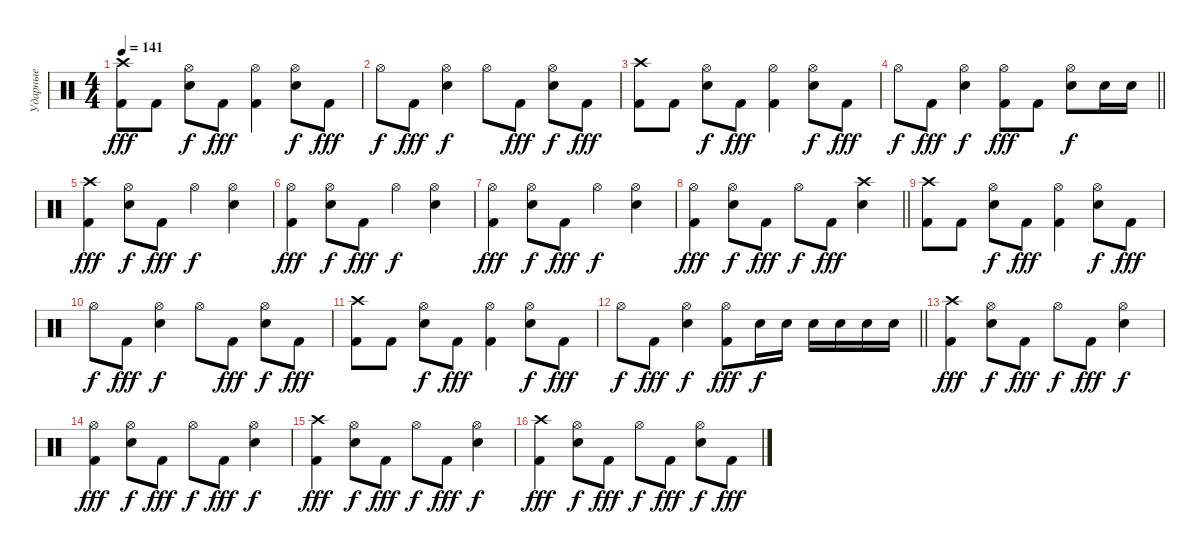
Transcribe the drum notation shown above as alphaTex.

\track ("Ударные" "Ударные") {instrument percussion}
\staff {score}
\articulation defaults
\ts (4 4)
\tempo 141
\clef neutral
\ks c
("Kick (hit) 2" "Crash high (hit)").8{dy fff} "Kick (hit) 2".8 ("Snare (hit) 2" "Hi-Hat (open)").8{dy f} "Kick (hit) 2".8{dy fff} ("Kick (hit) 2" "Hi-Hat (open)").4 ("Snare (hit) 2" "Hi-Hat (open)").8{dy f} "Kick (hit) 2".8{dy fff} |
"Hi-Hat (open)".8{dy f} "Kick (hit) 2".8{dy fff} ("Snare (hit) 2" "Hi-Hat (open)").4{dy f} "Hi-Hat (open)".8 "Kick (hit) 2".8{dy fff} ("Snare (hit) 2" "Hi-Hat (open)").8{dy f} "Kick (hit) 2".8{dy fff} |
("Kick (hit) 2" "Crash high (hit)").8 "Kick (hit) 2".8 ("Snare (hit) 2" "Hi-Hat (open)").8{dy f} "Kick (hit) 2".8{dy fff} ("Kick (hit) 2" "Hi-Hat (open)").4 ("Snare (hit) 2" "Hi-Hat (open)").8{dy f} "Kick (hit) 2".8{dy fff} |
\barLineRight lightlight "Hi-Hat (open)".8{dy f} "Kick (hit) 2".8{dy fff}
("Snare (hit) 2" "Hi-Hat (open)").4{dy f} ("Kick (hit) 2" "Hi-Hat (open)").8{dy fff} "Kick (hit) 2".8 ("Snare (hit) 2" "Hi-Hat (open)").8{dy f} "Snare (hit) 2".16 "Snare (hit) 2".16 |
("Kick (hit) 2" "Crash high (hit)").4{dy fff} ("Snare (hit) 2" "Hi-Hat (open)").8{dy f} "Kick (hit) 2".8{dy fff} "Hi-Hat (open)".4{dy f} ("Snare (hit) 2" "Hi-Hat (open)").4 |
("Kick (hit) 2" "Hi-Hat (open)").4{dy fff} ("Snare (hit) 2" "Hi-Hat (open)").8{dy f} "Kick (hit) 2".8{dy fff} "Hi-Hat (open)".4{dy f} ("Snare (hit) 2" "Hi-Hat (open)").4 |
("Kick (hit) 2" "Hi-Hat (open)").4{dy fff} ("Snare (hit) 2" "Hi-Hat (open)").8{dy f} "Kick (hit) 2".8{dy fff} "Hi-Hat (open)".4{dy f} ("Snare (hit) 2" "Hi-Hat (open)").4 |
\barLineRight lightlight
("Kick (hit) 2" "Hi-Hat (open)").4{dy fff} ("Snare (hit) 2" "Hi-Hat (open)").8{dy f} "Kick (hit) 2".8{dy fff} "Hi-Hat (open)".8{dy f} "Kick (hit) 2".8{dy fff} ("Snare (hit) 2" "Crash high (hit)").4 |
("Kick (hit) 2" "Crash high (hit)").8 "Kick (hit) 2".8 ("Snare (hit) 2" "Hi-Hat (open)").8{dy f} "Kick (hit) 2".8{dy fff} ("Kick (hit) 2" "Hi-Hat (open)").4 ("Snare (hit) 2" "Hi-Hat (open)").8{dy f} "Kick (hit) 2".8{dy fff} |
"Hi-Hat (open)".8{dy f} "Kick (hit) 2".8{dy fff} ("Snare (hit) 2" "Hi-Hat (open)").4{dy f} "Hi-Hat (open)".8 "Kick (hit) 2".8{dy fff} ("Snare (hit) 2" "Hi-Hat (open)").8{dy f} "Kick (hit) 2".8{dy fff} |
("Kick (hit) 2" "Crash high (hit)").8 "Kick (hit) 2".8 ("Snare (hit) 2" "Hi-Hat (open)").8{dy f} "Kick (hit) 2".8{dy fff} ("Kick (hit) 2" "Hi-Hat (open)").4 ("Snare (hit) 2" "Hi-Hat (open)").8{dy f} "Kick (hit) 2".8{dy fff} |
\barLineRight lightlight "Hi-Hat (open)".8{dy f} "Kick (hit) 2".8{dy fff}
("Snare (hit) 2" "Hi-Hat (open)").4{dy f} ("Kick (hit) 2" "Hi-Hat (open)").8{dy fff} "Snare (hit) 2".16{dy f} "Snare (hit) 2".16 "Snare (hit) 2".16 "Snare (hit) 2".16 "Snare (hit) 2".16 "Snare (hit) 2".16 |
("Kick (hit) 2" "Crash high (hit)").4{dy fff} ("Snare (hit) 2" "Hi-Hat (open)").8{dy f} "Kick (hit) 2".8{dy fff} "Hi-Hat (open)".8{dy f} "Kick (hit) 2".8{dy fff} ("Snare (hit) 2" "Hi-Hat (open)").4{dy f} |
("Kick (hit) 2" "Hi-Hat (open)").4{dy fff} ("Snare (hit) 2" "Hi-Hat (open)").8{dy f} "Kick (hit) 2".8{dy fff} "Hi-Hat (open)".8{dy f} "Kick (hit) 2".8{dy fff} ("Snare (hit) 2" "Hi-Hat (open)").4{dy f} |
("Kick (hit) 2" "Crash high (hit)").4{dy fff} ("Snare (hit) 2" "Hi-Hat (open)").8{dy f} "Kick (hit) 2".8{dy fff} "Hi-Hat (open)".8{dy f} "Kick (hit) 2".8{dy fff} ("Snare (hit) 2" "Hi-Hat (open)").4{dy f} |
("Kick (hit) 2" "Crash high (hit)").4{dy fff} ("Snare (hit) 2" "Hi-Hat (open)").8{dy f} "Kick (hit) 2".8{dy fff} "Hi-Hat (open)".8{dy f} "Kick (hit) 2".8{dy fff} ("Snare (hit) 2" "Hi-Hat (open)").8{dy f} "Kick (hit) 2".8{dy fff}
